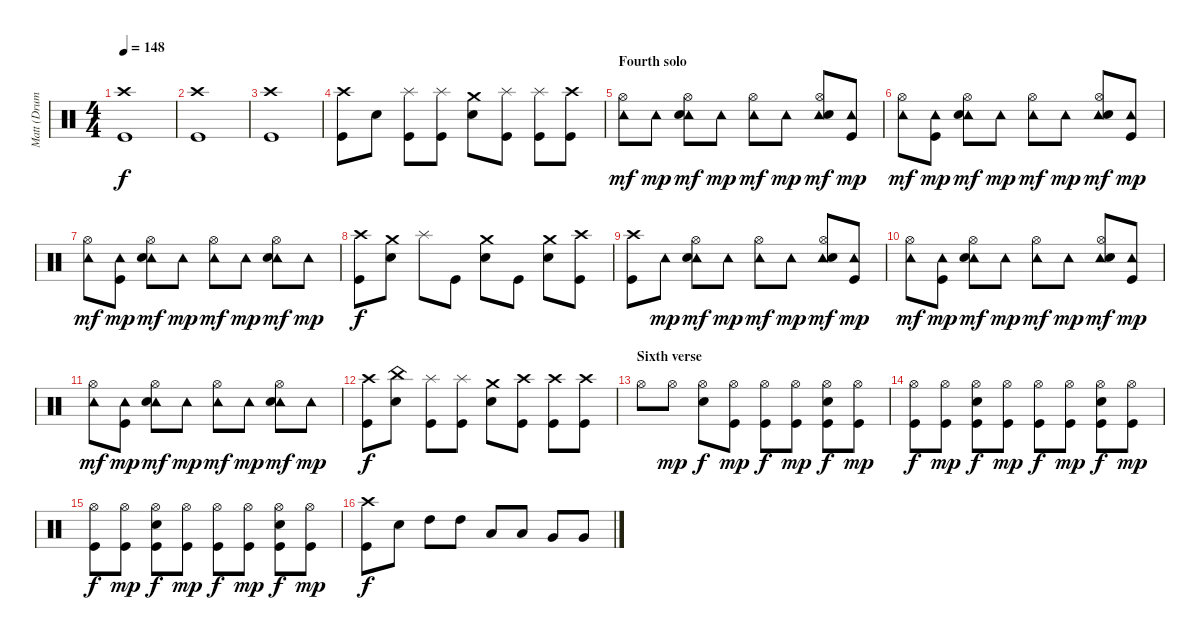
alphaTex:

\track ("Matt (Drums)" "Matt (Drum") {instrument percussion}
\staff {score}
\articulation defaults
\ts (4 4)
\tempo 148
\clef neutral
\ks c
("Crash high (hit)" "Kick (hit)").1{dy f} |
("Crash high (hit)" "Kick (hit)").1 |
("Crash high (hit)" "Kick (hit)").1 |
("Crash high (hit)" "Kick (hit)").8 "Electric Snare (hit)".8 ("Splash (hit)" "Kick (hit)").8 ("Splash (hit)" "Kick (hit)").8 ("Crash medium (hit)" "Electric Snare (hit)").8 ("Splash (hit)" "Kick (hit)").8 ("Splash (hit)" "Kick (hit)").8 ("Crash high (hit)" "Kick (hit)").8 |
\section ("" "Fourth solo")
("Hi-Hat (open)" "Tambourine (hit)").8{dy mf} "Tambourine (hit)".8{dy mp} ("Hi-Hat (open)" "Tambourine (hit)" "Electric Snare (hit)").8{dy mf} "Tambourine (hit)".8{dy mp} ("Hi-Hat (open)" "Tambourine (hit)").8{dy mf} "Tambourine (hit)".8{dy mp} ("Hi-Hat (open)" "Tambourine (hit)" "Electric Snare (hit)").8{dy mf} ("Tambourine (hit)" "Kick (hit)").8{dy mp} |
("Hi-Hat (open)" "Tambourine (hit)").8{dy mf} ("Tambourine (hit)" "Kick (hit)").8{dy mp} ("Hi-Hat (open)" "Tambourine (hit)" "Electric Snare (hit)").8{dy mf} "Tambourine (hit)".8{dy mp} ("Hi-Hat (open)" "Tambourine (hit)").8{dy mf} "Tambourine (hit)".8{dy mp} ("Hi-Hat (open)" "Tambourine (hit)" "Electric Snare (hit)").8{dy mf} ("Tambourine (hit)" "Kick (hit)").8{dy mp} |
("Hi-Hat (open)" "Tambourine (hit)").8{dy mf} ("Tambourine (hit)" "Kick (hit)").8{dy mp} ("Hi-Hat (open)" "Tambourine (hit)" "Electric Snare (hit)").8{dy mf} "Tambourine (hit)".8{dy mp} ("Hi-Hat (open)" "Tambourine (hit)").8{dy mf} "Tambourine (hit)".8{dy mp} ("Hi-Hat (open)" "Tambourine (hit)" "Electric Snare (hit)").8{dy mf} "Tambourine (hit)".8{dy mp} |
("Crash high (hit)" "Kick (hit)").8{dy f} ("Crash medium (hit)" "Electric Snare (hit)").8 "Splash (hit)".8 "Kick (hit)".8 ("Crash medium (hit)" "Electric Snare (hit)").8 "Kick (hit)".8 ("Crash medium (hit)" "Electric Snare (hit)").8 ("Crash high (hit)" "Kick (hit)").8 |
("Crash high (hit)" "Kick (hit)").8 "Tambourine (hit)".8{dy mp} ("Hi-Hat (open)" "Tambourine (hit)" "Electric Snare (hit)").8{dy mf} "Tambourine (hit)".8{dy mp} ("Hi-Hat (open)" "Tambourine (hit)").8{dy mf} "Tambourine (hit)".8{dy mp} ("Hi-Hat (open)" "Tambourine (hit)" "Electric Snare (hit)").8{dy mf} ("Tambourine (hit)" "Kick (hit)").8{dy mp} |
("Hi-Hat (open)" "Tambourine (hit)").8{dy mf} ("Tambourine (hit)" "Kick (hit)").8{dy mp} ("Hi-Hat (open)" "Tambourine (hit)" "Electric Snare (hit)").8{dy mf} "Tambourine (hit)".8{dy mp} ("Hi-Hat (open)" "Tambourine (hit)").8{dy mf} "Tambourine (hit)".8{dy mp} ("Hi-Hat (open)" "Tambourine (hit)" "Electric Snare (hit)").8{dy mf} ("Tambourine (hit)" "Kick (hit)").8{dy mp} |
("Hi-Hat (open)" "Tambourine (hit)").8{dy mf} ("Tambourine (hit)" "Kick (hit)").8{dy mp} ("Hi-Hat (open)" "Tambourine (hit)" "Electric Snare (hit)").8{dy mf} "Tambourine (hit)".8{dy mp} ("Hi-Hat (open)" "Tambourine (hit)").8{dy mf} "Tambourine (hit)".8{dy mp} ("Hi-Hat (open)" "Tambourine (hit)" "Electric Snare (hit)").8{dy mf} "Tambourine (hit)".8{dy mp} |
("Crash high (hit)" "Kick (hit)").8{dy f} ("China (hit)" "Electric Snare (hit)").8 ("Splash (hit)" "Kick (hit)").8 ("Splash (hit)" "Kick (hit)").8 ("Crash medium (hit)" "Electric Snare (hit)").8 ("Crash high (hit)" "Kick (hit)").8 ("Crash high (hit)" "Kick (hit)").8 ("Crash high (hit)" "Kick (hit)").8 |
\section ("" "Sixth verse")
"Hi-Hat (open)".8 "Hi-Hat (open)".8{dy mp} ("Hi-Hat (open)" "Electric Snare (hit)").8{dy f} ("Hi-Hat (open)" "Kick (hit)").8{dy mp} ("Hi-Hat (open)" "Kick (hit)").8{dy f} ("Hi-Hat (open)" "Kick (hit)").8{dy mp} ("Hi-Hat (open)" "Electric Snare (hit)" "Kick (hit)").8{dy f} ("Hi-Hat (open)" "Kick (hit)").8{dy mp} |
("Hi-Hat (open)" "Kick (hit)").8{dy f} ("Hi-Hat (open)" "Kick (hit)").8{dy mp} ("Hi-Hat (open)" "Electric Snare (hit)" "Kick (hit)").8{dy f} ("Hi-Hat (open)" "Kick (hit)").8{dy mp} ("Hi-Hat (open)" "Kick (hit)").8{dy f} ("Hi-Hat (open)" "Kick (hit)").8{dy mp} ("Hi-Hat (open)" "Electric Snare (hit)" "Kick (hit)").8{dy f} ("Hi-Hat (open)" "Kick (hit)").8{dy mp} |
("Hi-Hat (open)" "Kick (hit)").8{dy f} ("Hi-Hat (open)" "Kick (hit)").8{dy mp} ("Hi-Hat (open)" "Electric Snare (hit)" "Kick (hit)").8{dy f} ("Hi-Hat (open)" "Kick (hit)").8{dy mp} ("Hi-Hat (open)" "Kick (hit)").8{dy f} ("Hi-Hat (open)" "Kick (hit)").8{dy mp} ("Hi-Hat (open)" "Electric Snare (hit)" "Kick (hit)").8{dy f} ("Hi-Hat (open)" "Kick (hit)").8{dy mp} |
("Crash high (hit)" "Kick (hit)").8{dy f} "Electric Snare (hit)".8 "High Tom (hit)".8 "High Tom (hit)".8 "Low Tom (hit)".8 "Low Tom (hit)".8 "Very Low Tom (hit)".8 "Very Low Tom (hit)".8
